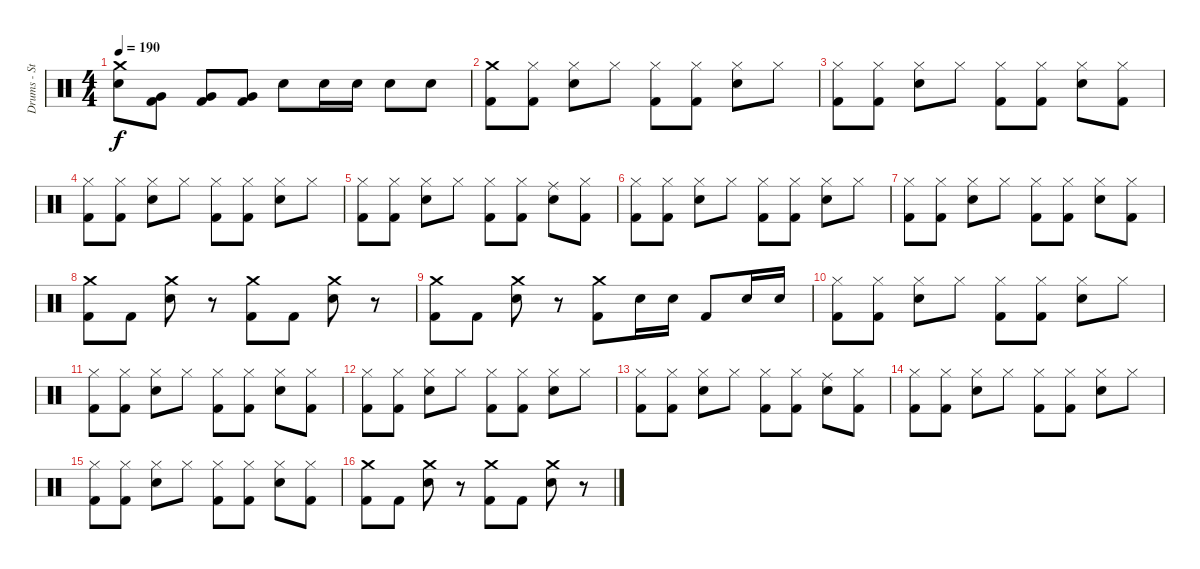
\track ("Drums - Stevo 32" "Drums - St") {instrument percussion}
\staff {score}
\articulation defaults
\ts (4 4)
\tempo 190
\clef neutral
\ks c
("Crash medium (hit)" "Electric Snare (hit)").8{dy f} ("Very Low Tom (hit)" "Kick (hit) 2").8 ("Very Low Tom (hit)" "Kick (hit) 2").8 ("Very Low Tom (hit)" "Kick (hit) 2").8 "Electric Snare (hit)".8 "Electric Snare (hit)".16 "Electric Snare (hit)".16 "Electric Snare (hit)".8 "Electric Snare (hit)".8 |
("Crash medium (hit)" "Kick (hit) 2").8 ("Hi-Hat (closed)" "Kick (hit) 2").8 ("Hi-Hat (closed)" "Electric Snare (hit)").8 "Hi-Hat (closed)".8 ("Hi-Hat (closed)" "Kick (hit) 2").8 ("Hi-Hat (closed)" "Kick (hit) 2").8 ("Hi-Hat (closed)" "Electric Snare (hit)").8 "Hi-Hat (closed)".8 |
("Hi-Hat (closed)" "Kick (hit) 2").8 ("Hi-Hat (closed)" "Kick (hit) 2").8 ("Hi-Hat (closed)" "Electric Snare (hit)").8 "Hi-Hat (closed)".8 ("Hi-Hat (closed)" "Kick (hit) 2").8 ("Hi-Hat (closed)" "Kick (hit) 2").8 ("Hi-Hat (closed)" "Electric Snare (hit)").8 ("Hi-Hat (closed)" "Kick (hit) 2").8 |
("Hi-Hat (closed)" "Kick (hit) 2").8 ("Hi-Hat (closed)" "Kick (hit) 2").8 ("Hi-Hat (closed)" "Electric Snare (hit)").8 "Hi-Hat (closed)".8 ("Hi-Hat (closed)" "Kick (hit) 2").8 ("Hi-Hat (closed)" "Kick (hit) 2").8 ("Hi-Hat (closed)" "Electric Snare (hit)").8 "Hi-Hat (closed)".8 |
("Hi-Hat (closed)" "Kick (hit) 2").8 ("Hi-Hat (closed)" "Kick (hit) 2").8 ("Hi-Hat (closed)" "Electric Snare (hit)").8 "Hi-Hat (closed)".8 ("Hi-Hat (closed)" "Kick (hit) 2").8 ("Hi-Hat (closed)" "Kick (hit) 2").8 ("Ride (middle)" "Electric Snare (hit)").8 ("Hi-Hat (closed)" "Kick (hit) 2").8 |
("Hi-Hat (closed)" "Kick (hit) 2").8 ("Hi-Hat (closed)" "Kick (hit) 2").8 ("Hi-Hat (closed)" "Electric Snare (hit)").8 "Hi-Hat (closed)".8 ("Hi-Hat (closed)" "Kick (hit) 2").8 ("Hi-Hat (closed)" "Kick (hit) 2").8 ("Hi-Hat (closed)" "Electric Snare (hit)").8 "Hi-Hat (closed)".8 |
("Hi-Hat (closed)" "Kick (hit) 2").8 ("Hi-Hat (closed)" "Kick (hit) 2").8 ("Hi-Hat (closed)" "Electric Snare (hit)").8 "Hi-Hat (closed)".8 ("Hi-Hat (closed)" "Kick (hit) 2").8 ("Hi-Hat (closed)" "Kick (hit) 2").8 ("Hi-Hat (closed)" "Electric Snare (hit)").8 ("Hi-Hat (closed)" "Kick (hit) 2").8 |
("Crash medium (hit)" "Kick (hit) 2").8 "Kick (hit) 2".8 ("Crash medium (hit)" "Electric Snare (hit)").8 r.8 ("Crash medium (hit)" "Kick (hit) 2").8 "Kick (hit) 2".8 ("Crash medium (hit)" "Electric Snare (hit)").8 r.8 |
("Crash medium (hit)" "Kick (hit) 2").8 "Kick (hit) 2".8 ("Crash medium (hit)" "Electric Snare (hit)").8 r.8 ("Crash medium (hit)" "Kick (hit) 2").8 "Electric Snare (hit)".16 "Electric Snare (hit)".16 "Kick (hit) 2".8 "Electric Snare (hit)".16 "Electric Snare (hit)".16 |
("Hi-Hat (closed)" "Kick (hit) 2").8 ("Hi-Hat (closed)" "Kick (hit) 2").8 ("Hi-Hat (closed)" "Electric Snare (hit)").8 "Hi-Hat (closed)".8 ("Hi-Hat (closed)" "Kick (hit) 2").8 ("Hi-Hat (closed)" "Kick (hit) 2").8 ("Hi-Hat (closed)" "Electric Snare (hit)").8 "Hi-Hat (closed)".8 |
("Hi-Hat (closed)" "Kick (hit) 2").8 ("Hi-Hat (closed)" "Kick (hit) 2").8 ("Hi-Hat (closed)" "Electric Snare (hit)").8 "Hi-Hat (closed)".8 ("Hi-Hat (closed)" "Kick (hit) 2").8 ("Hi-Hat (closed)" "Kick (hit) 2").8 ("Hi-Hat (closed)" "Electric Snare (hit)").8 ("Hi-Hat (closed)" "Kick (hit) 2").8 |
("Hi-Hat (closed)" "Kick (hit) 2").8 ("Hi-Hat (closed)" "Kick (hit) 2").8 ("Hi-Hat (closed)" "Electric Snare (hit)").8 "Hi-Hat (closed)".8 ("Hi-Hat (closed)" "Kick (hit) 2").8 ("Hi-Hat (closed)" "Kick (hit) 2").8 ("Hi-Hat (closed)" "Electric Snare (hit)").8 "Hi-Hat (closed)".8 |
("Hi-Hat (closed)" "Kick (hit) 2").8 ("Hi-Hat (closed)" "Kick (hit) 2").8 ("Hi-Hat (closed)" "Electric Snare (hit)").8 "Hi-Hat (closed)".8 ("Hi-Hat (closed)" "Kick (hit) 2").8 ("Hi-Hat (closed)" "Kick (hit) 2").8 ("Ride (middle)" "Electric Snare (hit)").8 ("Hi-Hat (closed)" "Kick (hit) 2").8 |
("Hi-Hat (closed)" "Kick (hit) 2").8 ("Hi-Hat (closed)" "Kick (hit) 2").8 ("Hi-Hat (closed)" "Electric Snare (hit)").8 "Hi-Hat (closed)".8 ("Hi-Hat (closed)" "Kick (hit) 2").8 ("Hi-Hat (closed)" "Kick (hit) 2").8 ("Hi-Hat (closed)" "Electric Snare (hit)").8 "Hi-Hat (closed)".8 |
("Hi-Hat (closed)" "Kick (hit) 2").8 ("Hi-Hat (closed)" "Kick (hit) 2").8 ("Hi-Hat (closed)" "Electric Snare (hit)").8 "Hi-Hat (closed)".8 ("Hi-Hat (closed)" "Kick (hit) 2").8 ("Hi-Hat (closed)" "Kick (hit) 2").8 ("Hi-Hat (closed)" "Electric Snare (hit)").8 ("Hi-Hat (closed)" "Kick (hit) 2").8 |
("Crash medium (hit)" "Kick (hit) 2").8 "Kick (hit) 2".8 ("Crash medium (hit)" "Electric Snare (hit)").8 r.8 ("Crash medium (hit)" "Kick (hit) 2").8 "Kick (hit) 2".8 ("Crash medium (hit)" "Electric Snare (hit)").8 r.8
